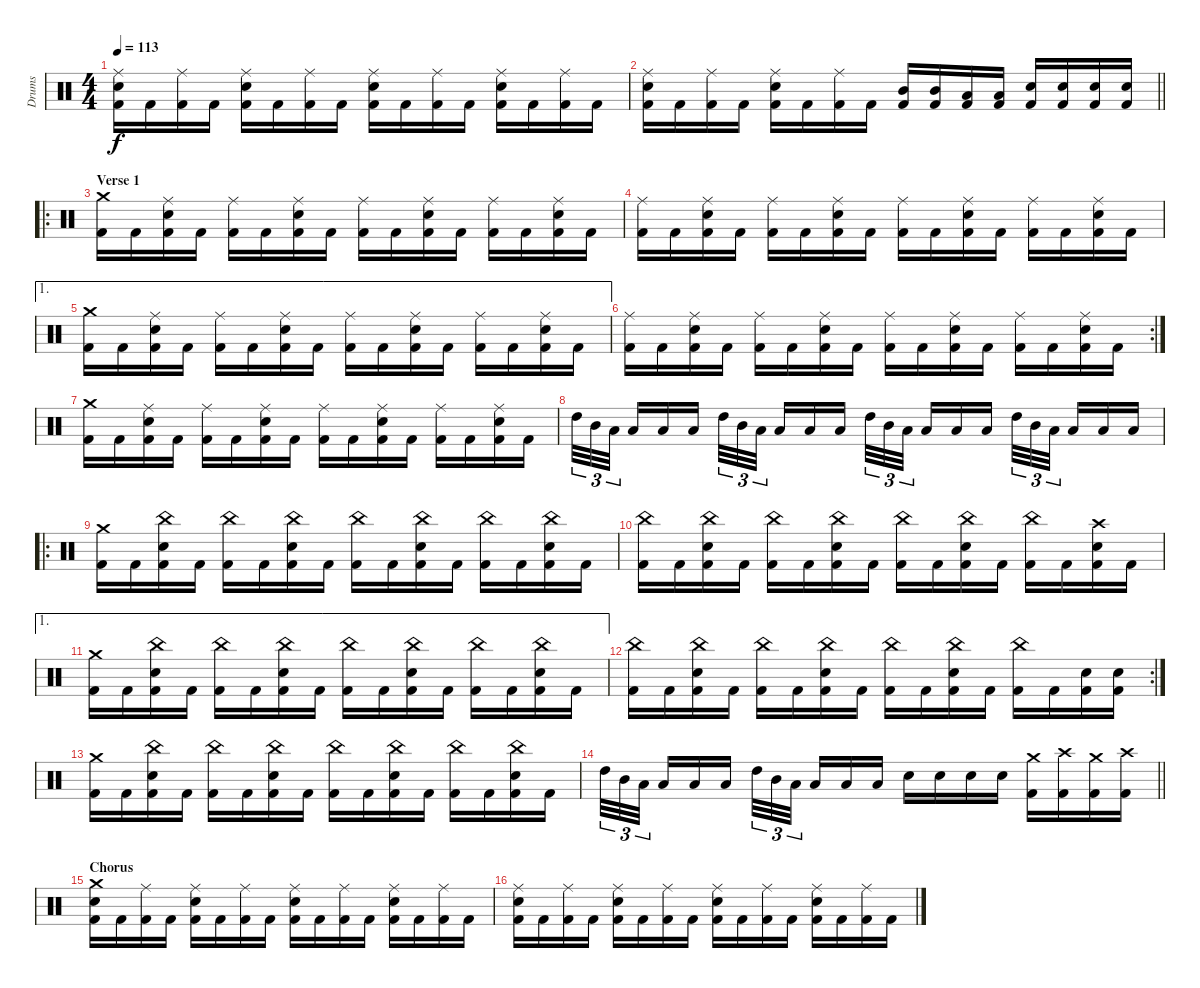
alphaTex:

\track ("Drums" "Drums") {instrument percussion}
\staff {score}
\articulation defaults
\ts (4 4)
\tempo 113
\clef neutral
\ks c
("Kick (hit) 2" "Snare (hit) 2" "Ride (middle)").16{dy f} "Kick (hit) 2".16 ("Kick (hit) 2" "Ride (middle)").16 "Kick (hit) 2".16 ("Kick (hit) 2" "Snare (hit) 2" "Ride (middle)").16 "Kick (hit) 2".16 ("Kick (hit) 2" "Ride (middle)").16 "Kick (hit) 2".16 ("Kick (hit) 2" "Snare (hit) 2" "Ride (middle)").16 "Kick (hit) 2".16 ("Kick (hit) 2" "Ride (middle)").16 "Kick (hit) 2".16 ("Kick (hit) 2" "Snare (hit) 2" "Ride (middle)").16 "Kick (hit) 2".16 ("Kick (hit) 2" "Ride (middle)").16 "Kick (hit) 2".16 |
\barLineRight lightlight
("Kick (hit) 2" "Snare (hit) 2" "Ride (middle)").16 "Kick (hit) 2".16 ("Kick (hit) 2" "Ride (middle)").16 "Kick (hit) 2".16 ("Kick (hit) 2" "Snare (hit) 2" "Ride (middle)").16 "Kick (hit) 2".16 ("Kick (hit) 2" "Ride (middle)").16 "Kick (hit) 2".16 ("Kick (hit) 2" "Mid Tom (hit)").16 ("Kick (hit) 2" "Mid Tom (hit)").16 ("Kick (hit) 2" "Low Tom (hit)").16 ("Kick (hit) 2" "Low Tom (hit)").16 ("Kick (hit) 2" "Snare (hit) 2").16 ("Kick (hit) 2" "Snare (hit) 2").16 ("Kick (hit) 2" "Snare (hit) 2").16 ("Kick (hit) 2" "Snare (hit) 2").16 |
\ro
\section ("" "Verse 1")
("Kick (hit) 2" "Crash medium (hit)").16 "Kick (hit) 2".16 ("Kick (hit) 2" "Snare (hit) 2" "Ride (middle)").16 "Kick (hit) 2".16 ("Kick (hit) 2" "Ride (middle)").16 "Kick (hit) 2".16 ("Kick (hit) 2" "Snare (hit) 2" "Ride (middle)").16 "Kick (hit) 2".16 ("Kick (hit) 2" "Ride (middle)").16 "Kick (hit) 2".16 ("Kick (hit) 2" "Snare (hit) 2" "Ride (middle)").16 "Kick (hit) 2".16 ("Kick (hit) 2" "Ride (middle)").16 "Kick (hit) 2".16 ("Kick (hit) 2" "Snare (hit) 2" "Ride (middle)").16 "Kick (hit) 2".16 |
("Kick (hit) 2" "Ride (middle)").16 "Kick (hit) 2".16 ("Kick (hit) 2" "Snare (hit) 2" "Ride (middle)").16 "Kick (hit) 2".16 ("Kick (hit) 2" "Ride (middle)").16 "Kick (hit) 2".16 ("Kick (hit) 2" "Snare (hit) 2" "Ride (middle)").16 "Kick (hit) 2".16 ("Kick (hit) 2" "Ride (middle)").16 "Kick (hit) 2".16 ("Kick (hit) 2" "Snare (hit) 2" "Ride (middle)").16 "Kick (hit) 2".16 ("Kick (hit) 2" "Ride (middle)").16 "Kick (hit) 2".16 ("Kick (hit) 2" "Snare (hit) 2" "Ride (middle)").16 "Kick (hit) 2".16 |
\ae 1
("Kick (hit) 2" "Crash medium (hit)").16 "Kick (hit) 2".16 ("Kick (hit) 2" "Snare (hit) 2" "Ride (middle)").16 "Kick (hit) 2".16 ("Kick (hit) 2" "Ride (middle)").16 "Kick (hit) 2".16 ("Kick (hit) 2" "Snare (hit) 2" "Ride (middle)").16 "Kick (hit) 2".16 ("Kick (hit) 2" "Ride (middle)").16 "Kick (hit) 2".16 ("Kick (hit) 2" "Snare (hit) 2" "Ride (middle)").16 "Kick (hit) 2".16 ("Kick (hit) 2" "Ride (middle)").16 "Kick (hit) 2".16 ("Kick (hit) 2" "Snare (hit) 2" "Ride (middle)").16 "Kick (hit) 2".16 |
\rc 2
("Kick (hit) 2" "Ride (middle)").16 "Kick (hit) 2".16 ("Kick (hit) 2" "Snare (hit) 2" "Ride (middle)").16 "Kick (hit) 2".16 ("Kick (hit) 2" "Ride (middle)").16 "Kick (hit) 2".16 ("Kick (hit) 2" "Snare (hit) 2" "Ride (middle)").16 "Kick (hit) 2".16 ("Kick (hit) 2" "Ride (middle)").16 "Kick (hit) 2".16 ("Kick (hit) 2" "Snare (hit) 2" "Ride (middle)").16 "Kick (hit) 2".16 ("Kick (hit) 2" "Ride (middle)").16 "Kick (hit) 2".16 ("Kick (hit) 2" "Snare (hit) 2" "Ride (middle)").16 "Kick (hit) 2".16 |
("Kick (hit) 2" "Crash medium (hit)").16 "Kick (hit) 2".16 ("Kick (hit) 2" "Snare (hit) 2" "Ride (middle)").16 "Kick (hit) 2".16 ("Kick (hit) 2" "Ride (middle)").16 "Kick (hit) 2".16 ("Kick (hit) 2" "Snare (hit) 2" "Ride (middle)").16 "Kick (hit) 2".16 ("Kick (hit) 2" "Ride (middle)").16 "Kick (hit) 2".16 ("Kick (hit) 2" "Snare (hit) 2" "Ride (middle)").16 "Kick (hit) 2".16 ("Kick (hit) 2" "Ride (middle)").16 "Kick (hit) 2".16 ("Kick (hit) 2" "Snare (hit) 2" "Ride (middle)").16 "Kick (hit) 2".16 |
"High Tom (hit)".32{tu (3 2)} "Mid Tom (hit)".32{tu (3 2)} "Low Tom (hit)".32{tu (3 2) beam splitsecondary} "Low Tom (hit)".16 "Low Tom (hit)".16 "Low Tom (hit)".16 "High Tom (hit)".32{tu (3 2)} "Mid Tom (hit)".32{tu (3 2)} "Low Tom (hit)".32{tu (3 2) beam splitsecondary} "Low Tom (hit)".16 "Low Tom (hit)".16 "Low Tom (hit)".16 "High Tom (hit)".32{tu (3 2)} "Mid Tom (hit)".32{tu (3 2)} "Low Tom (hit)".32{tu (3 2) beam splitsecondary} "Low Tom (hit)".16 "Low Tom (hit)".16 "Low Tom (hit)".16 "High Tom (hit)".32{tu (3 2)} "Mid Tom (hit)".32{tu (3 2)} "Low Tom (hit)".32{tu (3 2) beam splitsecondary} "Low Tom (hit)".16 "Low Tom (hit)".16 "Low Tom (hit)".16 |
\ro
("Kick (hit) 2" "Crash medium (hit)").16 "Kick (hit) 2".16 ("Kick (hit) 2" "Snare (hit) 2" "China (hit)").16 "Kick (hit) 2".16 ("Kick (hit) 2" "China (hit)").16 "Kick (hit) 2".16 ("Kick (hit) 2" "Snare (hit) 2" "China (hit)").16 "Kick (hit) 2".16 ("Kick (hit) 2" "China (hit)").16 "Kick (hit) 2".16 ("Kick (hit) 2" "Snare (hit) 2" "China (hit)").16 "Kick (hit) 2".16 ("Kick (hit) 2" "China (hit)").16 "Kick (hit) 2".16 ("Kick (hit) 2" "Snare (hit) 2" "China (hit)").16 "Kick (hit) 2".16 |
("Kick (hit) 2" "China (hit)").16 "Kick (hit) 2".16 ("Kick (hit) 2" "Snare (hit) 2" "China (hit)").16 "Kick (hit) 2".16 ("Kick (hit) 2" "China (hit)").16 "Kick (hit) 2".16 ("Kick (hit) 2" "Snare (hit) 2" "China (hit)").16 "Kick (hit) 2".16 ("Kick (hit) 2" "China (hit)").16 "Kick (hit) 2".16 ("Kick (hit) 2" "Snare (hit) 2" "China (hit)").16 "Kick (hit) 2".16 ("Kick (hit) 2" "China (hit)").16 "Kick (hit) 2".16 ("Kick (hit) 2" "Snare (hit) 2" "Crash high (hit)").16 "Kick (hit) 2".16 |
\ae 1
("Kick (hit) 2" "Crash medium (hit)").16 "Kick (hit) 2".16 ("Kick (hit) 2" "Snare (hit) 2" "China (hit)").16 "Kick (hit) 2".16 ("Kick (hit) 2" "China (hit)").16 "Kick (hit) 2".16 ("Kick (hit) 2" "Snare (hit) 2" "China (hit)").16 "Kick (hit) 2".16 ("Kick (hit) 2" "China (hit)").16 "Kick (hit) 2".16 ("Kick (hit) 2" "Snare (hit) 2" "China (hit)").16 "Kick (hit) 2".16 ("Kick (hit) 2" "China (hit)").16 "Kick (hit) 2".16 ("Kick (hit) 2" "Snare (hit) 2" "China (hit)").16 "Kick (hit) 2".16 |
\rc 2
("Kick (hit) 2" "China (hit)").16 "Kick (hit) 2".16 ("Kick (hit) 2" "Snare (hit) 2" "China (hit)").16 "Kick (hit) 2".16 ("Kick (hit) 2" "China (hit)").16 "Kick (hit) 2".16 ("Kick (hit) 2" "Snare (hit) 2" "China (hit)").16 "Kick (hit) 2".16 ("Kick (hit) 2" "China (hit)").16 "Kick (hit) 2".16 ("Kick (hit) 2" "Snare (hit) 2" "China (hit)").16 "Kick (hit) 2".16 ("Kick (hit) 2" "China (hit)").16 "Kick (hit) 2".16 ("Kick (hit) 2" "Snare (hit) 2").16 ("Kick (hit) 2" "Snare (hit) 2").16 |
("Kick (hit) 2" "Crash medium (hit)").16 "Kick (hit) 2".16 ("Kick (hit) 2" "Snare (hit) 2" "China (hit)").16 "Kick (hit) 2".16 ("Kick (hit) 2" "China (hit)").16 "Kick (hit) 2".16 ("Kick (hit) 2" "Snare (hit) 2" "China (hit)").16 "Kick (hit) 2".16 ("Kick (hit) 2" "China (hit)").16 "Kick (hit) 2".16 ("Kick (hit) 2" "Snare (hit) 2" "China (hit)").16 "Kick (hit) 2".16 ("Kick (hit) 2" "China (hit)").16 "Kick (hit) 2".16 ("Kick (hit) 2" "Snare (hit) 2" "China (hit)").16 "Kick (hit) 2".16 |
\barLineRight lightlight "High Tom (hit)".32{tu (3 2)} "Mid Tom (hit)".32{tu (3 2)} "Low Tom (hit)".32{tu (3 2) beam splitsecondary} "Low Tom (hit)".16 "Low Tom (hit)".16 "Low Tom (hit)".16 "High Tom (hit)".32{tu (3 2)} "Mid Tom (hit)".32{tu (3 2)} "Low Tom (hit)".32{tu (3 2) beam splitsecondary} "Low Tom (hit)".16 "Low Tom (hit)".16 "Low Tom (hit)".16 "Snare (hit) 2".16 "Snare (hit) 2".16 "Snare (hit) 2".16 "Snare (hit) 2".16
("Kick (hit) 2" "Crash medium (hit)").16 ("Kick (hit) 2" "Crash high (hit)").16 ("Kick (hit) 2" "Crash medium (hit)").16 ("Kick (hit) 2" "Crash high (hit)").16 |
\section ("" "Chorus")
("Kick (hit) 2" "Snare (hit) 2" "Crash medium (hit)").16 "Kick (hit) 2".16 ("Kick (hit) 2" "Ride (middle)").16 "Kick (hit) 2".16 ("Kick (hit) 2" "Snare (hit) 2" "Ride (middle)").16 "Kick (hit) 2".16 ("Kick (hit) 2" "Ride (middle)").16 "Kick (hit) 2".16 ("Kick (hit) 2" "Snare (hit) 2" "Ride (middle)").16 "Kick (hit) 2".16 ("Kick (hit) 2" "Ride (middle)").16 "Kick (hit) 2".16 ("Kick (hit) 2" "Snare (hit) 2" "Ride (middle)").16 "Kick (hit) 2".16 ("Kick (hit) 2" "Ride (middle)").16 "Kick (hit) 2".16 |
("Kick (hit) 2" "Snare (hit) 2" "Ride (middle)").16 "Kick (hit) 2".16 ("Kick (hit) 2" "Ride (middle)").16 "Kick (hit) 2".16 ("Kick (hit) 2" "Snare (hit) 2" "Ride (middle)").16 "Kick (hit) 2".16 ("Kick (hit) 2" "Ride (middle)").16 "Kick (hit) 2".16 ("Kick (hit) 2" "Snare (hit) 2" "Ride (middle)").16 "Kick (hit) 2".16 ("Kick (hit) 2" "Ride (middle)").16 "Kick (hit) 2".16 ("Kick (hit) 2" "Snare (hit) 2" "Ride (middle)").16 "Kick (hit) 2".16 ("Kick (hit) 2" "Ride (middle)").16 "Kick (hit) 2".16
